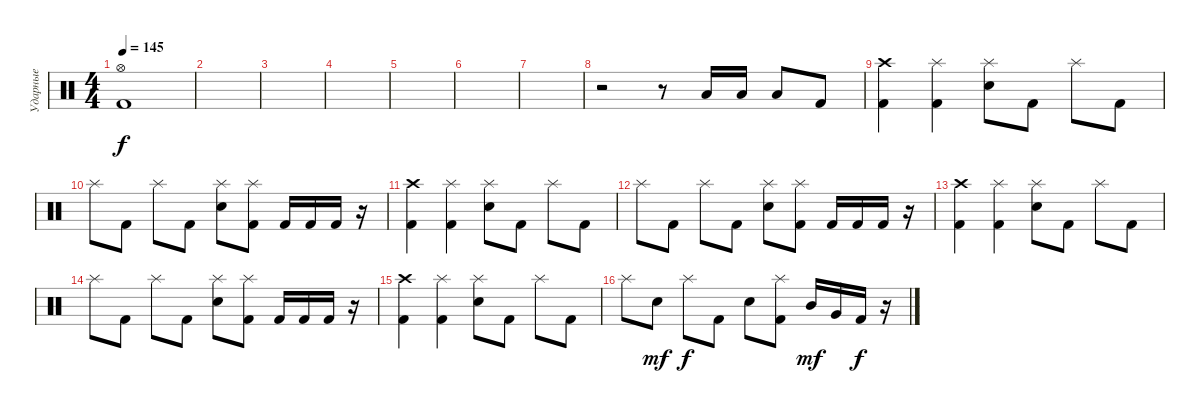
\track ("Ударные" "Ударные") {instrument percussion}
\staff {score}
\articulation defaults
\ts (4 4)
\tempo 145
\clef neutral
\ks c
("Hi-Hat (open)" "Kick (hit) 2").1{dy f} |
|
|
|
|
|
|
r.2 r.8 "Low Tom (hit)".16 "Low Tom (hit)".16 "Low Tom (hit)".8 "Kick (hit) 2".8 |
("Crash high (hit)" "Kick (hit) 2").4 ("Splash (hit)" "Kick (hit) 2").4 ("Splash (hit)" "Snare (hit) 2").8 "Kick (hit) 2".8 "Splash (hit)".8 "Kick (hit) 2".8 |
"Splash (hit)".8 "Kick (hit) 2".8 "Splash (hit)".8 "Kick (hit) 2".8 ("Splash (hit)" "Snare (hit) 2").8 ("Splash (hit)" "Kick (hit) 2").8 "Kick (hit) 2".16 "Kick (hit) 2".16 "Kick (hit) 2".16 r.16 |
("Crash high (hit)" "Kick (hit) 2").4 ("Splash (hit)" "Kick (hit) 2").4 ("Splash (hit)" "Snare (hit) 2").8 "Kick (hit) 2".8 "Splash (hit)".8 "Kick (hit) 2".8 |
"Splash (hit)".8 "Kick (hit) 2".8 "Splash (hit)".8 "Kick (hit) 2".8 ("Splash (hit)" "Snare (hit) 2").8 ("Splash (hit)" "Kick (hit) 2").8 "Kick (hit) 2".16 "Kick (hit) 2".16 "Kick (hit) 2".16 r.16 |
("Crash high (hit)" "Kick (hit) 2").4 ("Splash (hit)" "Kick (hit) 2").4 ("Splash (hit)" "Snare (hit) 2").8 "Kick (hit) 2".8 "Splash (hit)".8 "Kick (hit) 2".8 |
"Splash (hit)".8 "Kick (hit) 2".8 "Splash (hit)".8 "Kick (hit) 2".8 ("Splash (hit)" "Snare (hit) 2").8 ("Splash (hit)" "Kick (hit) 2").8 "Kick (hit) 2".16 "Kick (hit) 2".16 "Kick (hit) 2".16 r.16 |
("Crash high (hit)" "Kick (hit) 2").4 ("Splash (hit)" "Kick (hit) 2").4 ("Splash (hit)" "Snare (hit) 2").8 "Kick (hit) 2".8 "Splash (hit)".8 "Kick (hit) 2".8 |
"Splash (hit)".8 "Snare (hit) 2".8{dy mf} "Splash (hit)".8{dy f} "Kick (hit) 2".8 "Snare (hit) 2".8 ("Splash (hit)" "Kick (hit) 2").8 "Mid Tom (hit)".16{dy mf} "Very Low Tom (hit)".16 "Kick (hit) 2".16{dy f} r.16
